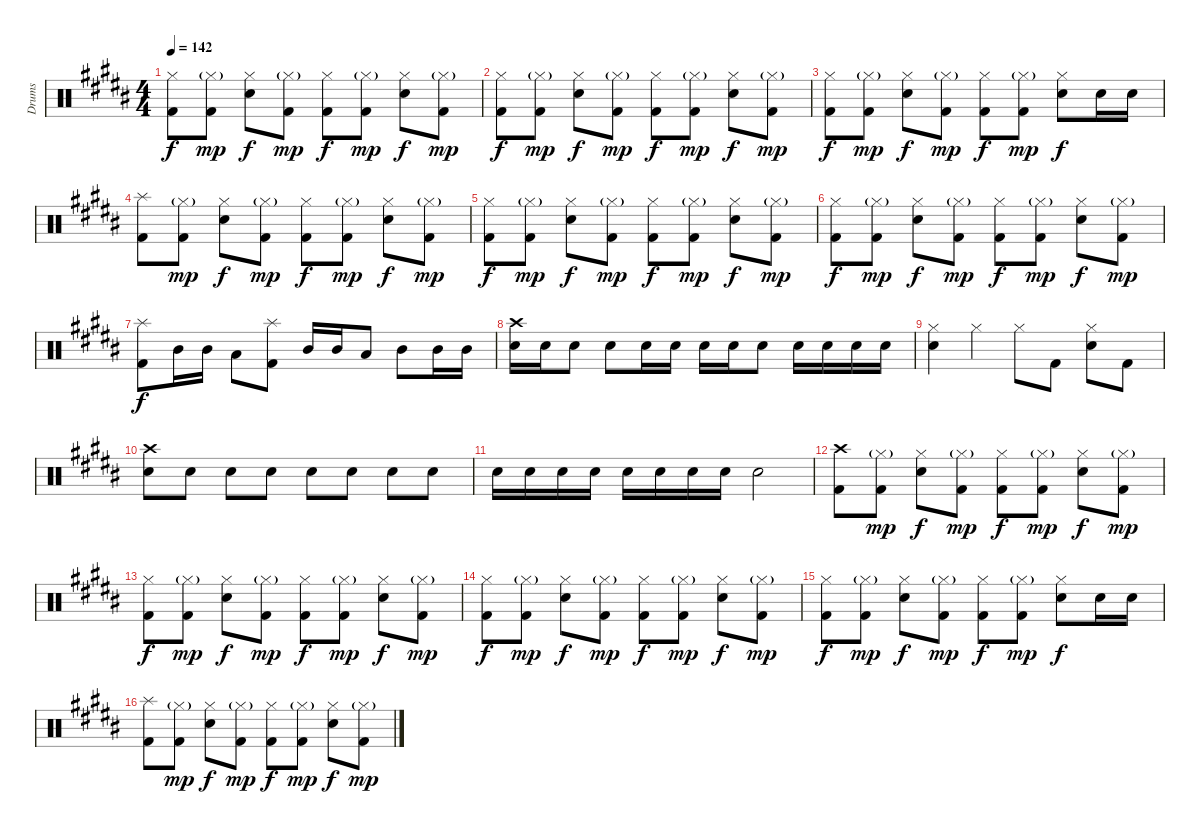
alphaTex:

\track ("Drums" "Drums") {instrument percussion}
\staff {score}
\articulation defaults
\ts (4 4)
\tempo 142
\clef neutral
\ks b
("Hi-Hat (closed)" "Kick (hit) 2").8{dy f} ("Hi-Hat (closed)"{g} "Kick (hit) 2").8{dy mp} ("Hi-Hat (closed)" "Electric Snare (hit)").8{dy f} ("Hi-Hat (closed)"{g} "Kick (hit) 2").8{dy mp} ("Hi-Hat (closed)" "Kick (hit) 2").8{dy f} ("Hi-Hat (closed)"{g} "Kick (hit) 2").8{dy mp} ("Hi-Hat (closed)" "Electric Snare (hit)").8{dy f} ("Hi-Hat (closed)"{g} "Kick (hit) 2").8{dy mp} |
("Hi-Hat (closed)" "Kick (hit) 2").8{dy f} ("Hi-Hat (closed)"{g} "Kick (hit) 2").8{dy mp} ("Hi-Hat (closed)" "Electric Snare (hit)").8{dy f} ("Hi-Hat (closed)"{g} "Kick (hit) 2").8{dy mp} ("Hi-Hat (closed)" "Kick (hit) 2").8{dy f} ("Hi-Hat (closed)"{g} "Kick (hit) 2").8{dy mp} ("Hi-Hat (closed)" "Electric Snare (hit)").8{dy f} ("Hi-Hat (closed)"{g} "Kick (hit) 2").8{dy mp} |
("Hi-Hat (closed)" "Kick (hit) 2").8{dy f} ("Hi-Hat (closed)"{g} "Kick (hit) 2").8{dy mp} ("Hi-Hat (closed)" "Electric Snare (hit)").8{dy f} ("Hi-Hat (closed)"{g} "Kick (hit) 2").8{dy mp} ("Hi-Hat (closed)" "Kick (hit) 2").8{dy f} ("Hi-Hat (closed)"{g} "Kick (hit) 2").8{dy mp} ("Hi-Hat (closed)" "Electric Snare (hit)").8{dy f} "Electric Snare (hit)".16 "Electric Snare (hit)".16 |
("Splash (hit)" "Kick (hit) 2").8 ("Hi-Hat (closed)"{g} "Kick (hit) 2").8{dy mp} ("Hi-Hat (closed)" "Electric Snare (hit)").8{dy f} ("Hi-Hat (closed)"{g} "Kick (hit) 2").8{dy mp} ("Hi-Hat (closed)" "Kick (hit) 2").8{dy f} ("Hi-Hat (closed)"{g} "Kick (hit) 2").8{dy mp} ("Hi-Hat (closed)" "Electric Snare (hit)").8{dy f} ("Hi-Hat (closed)"{g} "Kick (hit) 2").8{dy mp} |
("Hi-Hat (closed)" "Kick (hit) 2").8{dy f} ("Hi-Hat (closed)"{g} "Kick (hit) 2").8{dy mp} ("Hi-Hat (closed)" "Electric Snare (hit)").8{dy f} ("Hi-Hat (closed)"{g} "Kick (hit) 2").8{dy mp} ("Hi-Hat (closed)" "Kick (hit) 2").8{dy f} ("Hi-Hat (closed)"{g} "Kick (hit) 2").8{dy mp} ("Hi-Hat (closed)" "Electric Snare (hit)").8{dy f} ("Hi-Hat (closed)"{g} "Kick (hit) 2").8{dy mp} |
("Hi-Hat (closed)" "Kick (hit) 2").8{dy f} ("Hi-Hat (closed)"{g} "Kick (hit) 2").8{dy mp} ("Hi-Hat (closed)" "Electric Snare (hit)").8{dy f} ("Hi-Hat (closed)"{g} "Kick (hit) 2").8{dy mp} ("Hi-Hat (closed)" "Kick (hit) 2").8{dy f} ("Hi-Hat (closed)"{g} "Kick (hit) 2").8{dy mp} ("Hi-Hat (closed)" "Electric Snare (hit)").8{dy f} ("Hi-Hat (closed)"{g} "Kick (hit) 2").8{dy mp} |
("Splash (hit)" "Kick (hit) 2").8{dy f} "Mid Tom (hit)".16 "Mid Tom (hit)".16 "Low Tom (hit)".8 ("Splash (hit)" "Kick (hit) 2").8 "Mid Tom (hit)".16 "Mid Tom (hit)".16 "Low Tom (hit)".8 "Mid Tom (hit)".8 "Mid Tom (hit)".16 "Mid Tom (hit)".16 |
("Crash high (hit)" "Snare (hit) 2").16 "Snare (hit) 2".16 "Snare (hit) 2".8 "Snare (hit) 2".8 "Snare (hit) 2".16 "Snare (hit) 2".16 "Snare (hit) 2".16 "Snare (hit) 2".16 "Snare (hit) 2".8 "Snare (hit) 2".16 "Snare (hit) 2".16 "Snare (hit) 2".16 "Snare (hit) 2".16 |
("Hi-Hat (closed)" "Snare (hit) 2").4 "Hi-Hat (closed)".4 "Hi-Hat (closed)".8 "Kick (hit) 2".8 ("Hi-Hat (closed)" "Snare (hit) 2").8 "Kick (hit) 2".8 |
("Crash high (hit)" "Snare (hit) 2").8 "Snare (hit) 2".8 "Snare (hit) 2".8 "Snare (hit) 2".8 "Snare (hit) 2".8 "Snare (hit) 2".8 "Snare (hit) 2".8 "Snare (hit) 2".8 |
"Snare (hit) 2".16 "Snare (hit) 2".16 "Snare (hit) 2".16 "Snare (hit) 2".16 "Snare (hit) 2".16 "Snare (hit) 2".16 "Snare (hit) 2".16 "Snare (hit) 2".16 "Snare (hit) 2".2 |
("Crash high (hit)" "Kick (hit) 2").8 ("Hi-Hat (closed)"{g} "Kick (hit) 2").8{dy mp} ("Hi-Hat (closed)" "Electric Snare (hit)").8{dy f} ("Hi-Hat (closed)"{g} "Kick (hit) 2").8{dy mp} ("Hi-Hat (closed)" "Kick (hit) 2").8{dy f} ("Hi-Hat (closed)"{g} "Kick (hit) 2").8{dy mp} ("Hi-Hat (closed)" "Electric Snare (hit)").8{dy f} ("Hi-Hat (closed)"{g} "Kick (hit) 2").8{dy mp} |
("Hi-Hat (closed)" "Kick (hit) 2").8{dy f} ("Hi-Hat (closed)"{g} "Kick (hit) 2").8{dy mp} ("Hi-Hat (closed)" "Electric Snare (hit)").8{dy f} ("Hi-Hat (closed)"{g} "Kick (hit) 2").8{dy mp} ("Hi-Hat (closed)" "Kick (hit) 2").8{dy f} ("Hi-Hat (closed)"{g} "Kick (hit) 2").8{dy mp} ("Hi-Hat (closed)" "Electric Snare (hit)").8{dy f} ("Hi-Hat (closed)"{g} "Kick (hit) 2").8{dy mp} |
("Hi-Hat (closed)" "Kick (hit) 2").8{dy f} ("Hi-Hat (closed)"{g} "Kick (hit) 2").8{dy mp} ("Hi-Hat (closed)" "Electric Snare (hit)").8{dy f} ("Hi-Hat (closed)"{g} "Kick (hit) 2").8{dy mp} ("Hi-Hat (closed)" "Kick (hit) 2").8{dy f} ("Hi-Hat (closed)"{g} "Kick (hit) 2").8{dy mp} ("Hi-Hat (closed)" "Electric Snare (hit)").8{dy f} ("Hi-Hat (closed)"{g} "Kick (hit) 2").8{dy mp} |
("Hi-Hat (closed)" "Kick (hit) 2").8{dy f} ("Hi-Hat (closed)"{g} "Kick (hit) 2").8{dy mp} ("Hi-Hat (closed)" "Electric Snare (hit)").8{dy f} ("Hi-Hat (closed)"{g} "Kick (hit) 2").8{dy mp} ("Hi-Hat (closed)" "Kick (hit) 2").8{dy f} ("Hi-Hat (closed)"{g} "Kick (hit) 2").8{dy mp} ("Hi-Hat (closed)" "Electric Snare (hit)").8{dy f} "Electric Snare (hit)".16 "Electric Snare (hit)".16 |
("Splash (hit)" "Kick (hit) 2").8 ("Hi-Hat (closed)"{g} "Kick (hit) 2").8{dy mp} ("Hi-Hat (closed)" "Electric Snare (hit)").8{dy f} ("Hi-Hat (closed)"{g} "Kick (hit) 2").8{dy mp} ("Hi-Hat (closed)" "Kick (hit) 2").8{dy f} ("Hi-Hat (closed)"{g} "Kick (hit) 2").8{dy mp} ("Hi-Hat (closed)" "Electric Snare (hit)").8{dy f} ("Hi-Hat (closed)"{g} "Kick (hit) 2").8{dy mp}
